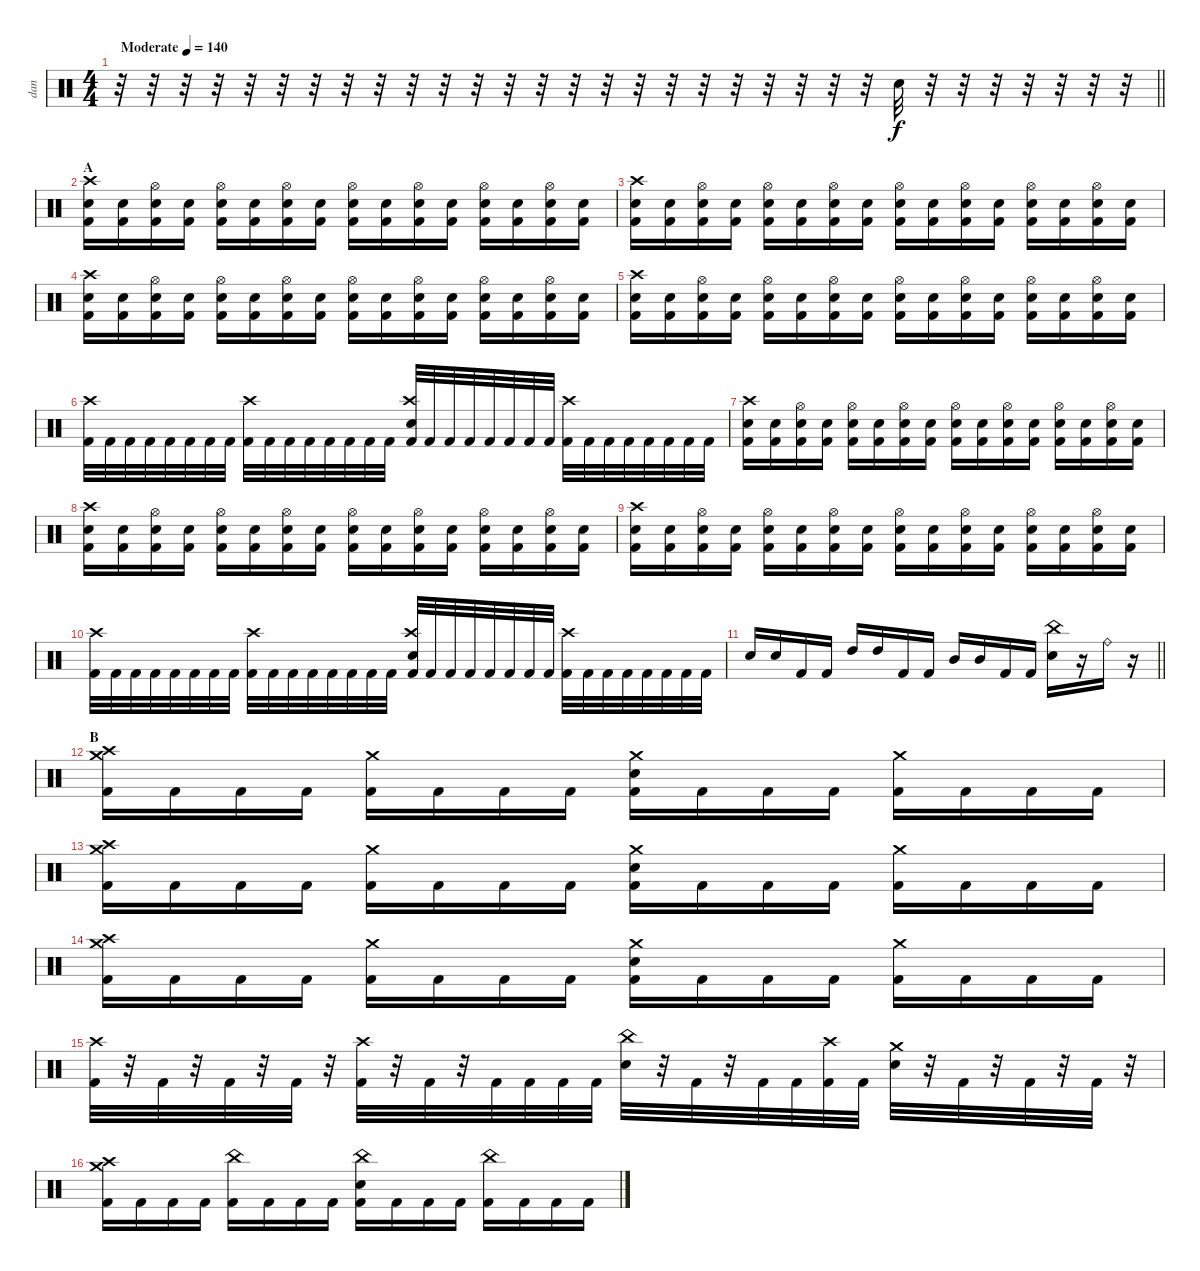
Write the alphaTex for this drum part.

\track ("dan" "dan") {instrument percussion}
\staff {score}
\articulation defaults
\ts (4 4)
\tempo (140 "Moderate")
\clef neutral
\barLineRight lightlight
\ks c
r.32{dy f} r.32 r.32 r.32 r.32 r.32 r.32 r.32 r.32 r.32 r.32 r.32 r.32 r.32 r.32 r.32 r.32 r.32 r.32 r.32 r.32 r.32 r.32 r.32 "Electric Snare (hit)".32 r.32 r.32 r.32 r.32 r.32 r.32 r.32 |
\section ("" "A")
("Crash high (hit)" "Electric Snare (hit)" "Kick (hit) 2").16 ("Electric Snare (hit)" "Kick (hit) 2").16 ("Hi-Hat (open)" "Electric Snare (hit)" "Kick (hit) 2").16 ("Electric Snare (hit)" "Kick (hit) 2").16 ("Hi-Hat (open)" "Electric Snare (hit)" "Kick (hit) 2").16 ("Electric Snare (hit)" "Kick (hit) 2").16 ("Hi-Hat (open)" "Electric Snare (hit)" "Kick (hit) 2").16 ("Electric Snare (hit)" "Kick (hit) 2").16 ("Hi-Hat (open)" "Electric Snare (hit)" "Kick (hit) 2").16 ("Electric Snare (hit)" "Kick (hit) 2").16 ("Hi-Hat (open)" "Electric Snare (hit)" "Kick (hit) 2").16 ("Electric Snare (hit)" "Kick (hit) 2").16 ("Hi-Hat (open)" "Electric Snare (hit)" "Kick (hit) 2").16 ("Electric Snare (hit)" "Kick (hit) 2").16 ("Hi-Hat (open)" "Electric Snare (hit)" "Kick (hit) 2").16 ("Electric Snare (hit)" "Kick (hit) 2").16 |
("Crash high (hit)" "Electric Snare (hit)" "Kick (hit) 2").16 ("Electric Snare (hit)" "Kick (hit) 2").16 ("Hi-Hat (open)" "Electric Snare (hit)" "Kick (hit) 2").16 ("Electric Snare (hit)" "Kick (hit) 2").16 ("Hi-Hat (open)" "Electric Snare (hit)" "Kick (hit) 2").16 ("Electric Snare (hit)" "Kick (hit) 2").16 ("Hi-Hat (open)" "Electric Snare (hit)" "Kick (hit) 2").16 ("Electric Snare (hit)" "Kick (hit) 2").16 ("Hi-Hat (open)" "Electric Snare (hit)" "Kick (hit) 2").16 ("Electric Snare (hit)" "Kick (hit) 2").16 ("Hi-Hat (open)" "Electric Snare (hit)" "Kick (hit) 2").16 ("Electric Snare (hit)" "Kick (hit) 2").16 ("Hi-Hat (open)" "Electric Snare (hit)" "Kick (hit) 2").16 ("Electric Snare (hit)" "Kick (hit) 2").16 ("Hi-Hat (open)" "Electric Snare (hit)" "Kick (hit) 2").16 ("Electric Snare (hit)" "Kick (hit) 2").16 |
("Crash high (hit)" "Electric Snare (hit)" "Kick (hit) 2").16 ("Electric Snare (hit)" "Kick (hit) 2").16 ("Hi-Hat (open)" "Electric Snare (hit)" "Kick (hit) 2").16 ("Electric Snare (hit)" "Kick (hit) 2").16 ("Hi-Hat (open)" "Electric Snare (hit)" "Kick (hit) 2").16 ("Electric Snare (hit)" "Kick (hit) 2").16 ("Hi-Hat (open)" "Electric Snare (hit)" "Kick (hit) 2").16 ("Electric Snare (hit)" "Kick (hit) 2").16 ("Hi-Hat (open)" "Electric Snare (hit)" "Kick (hit) 2").16 ("Electric Snare (hit)" "Kick (hit) 2").16 ("Hi-Hat (open)" "Electric Snare (hit)" "Kick (hit) 2").16 ("Electric Snare (hit)" "Kick (hit) 2").16 ("Hi-Hat (open)" "Electric Snare (hit)" "Kick (hit) 2").16 ("Electric Snare (hit)" "Kick (hit) 2").16 ("Hi-Hat (open)" "Electric Snare (hit)" "Kick (hit) 2").16 ("Electric Snare (hit)" "Kick (hit) 2").16 |
("Crash high (hit)" "Electric Snare (hit)" "Kick (hit) 2").16 ("Electric Snare (hit)" "Kick (hit) 2").16 ("Hi-Hat (open)" "Electric Snare (hit)" "Kick (hit) 2").16 ("Electric Snare (hit)" "Kick (hit) 2").16 ("Hi-Hat (open)" "Electric Snare (hit)" "Kick (hit) 2").16 ("Electric Snare (hit)" "Kick (hit) 2").16 ("Hi-Hat (open)" "Electric Snare (hit)" "Kick (hit) 2").16 ("Electric Snare (hit)" "Kick (hit) 2").16 ("Hi-Hat (open)" "Electric Snare (hit)" "Kick (hit) 2").16 ("Electric Snare (hit)" "Kick (hit) 2").16 ("Hi-Hat (open)" "Electric Snare (hit)" "Kick (hit) 2").16 ("Electric Snare (hit)" "Kick (hit) 2").16 ("Hi-Hat (open)" "Electric Snare (hit)" "Kick (hit) 2").16 ("Electric Snare (hit)" "Kick (hit) 2").16 ("Hi-Hat (open)" "Electric Snare (hit)" "Kick (hit) 2").16 ("Electric Snare (hit)" "Kick (hit) 2").16 |
("Crash high (hit)" "Kick (hit) 2").32 "Kick (hit) 2".32 "Kick (hit) 2".32 "Kick (hit) 2".32 "Kick (hit) 2".32 "Kick (hit) 2".32 "Kick (hit) 2".32 "Kick (hit) 2".32 ("Crash high (hit)" "Kick (hit) 2").32 "Kick (hit) 2".32 "Kick (hit) 2".32 "Kick (hit) 2".32 "Kick (hit) 2".32 "Kick (hit) 2".32 "Kick (hit) 2".32 "Kick (hit) 2".32 ("Crash high (hit)" "Electric Snare (hit)" "Kick (hit) 2").32 "Kick (hit) 2".32 "Kick (hit) 2".32 "Kick (hit) 2".32 "Kick (hit) 2".32 "Kick (hit) 2".32 "Kick (hit) 2".32 "Kick (hit) 2".32 ("Crash high (hit)" "Kick (hit) 2").32 "Kick (hit) 2".32 "Kick (hit) 2".32 "Kick (hit) 2".32 "Kick (hit) 2".32 "Kick (hit) 2".32 "Kick (hit) 2".32 "Kick (hit) 2".32 |
("Crash high (hit)" "Electric Snare (hit)" "Kick (hit) 2").16 ("Electric Snare (hit)" "Kick (hit) 2").16 ("Hi-Hat (open)" "Electric Snare (hit)" "Kick (hit) 2").16 ("Electric Snare (hit)" "Kick (hit) 2").16 ("Hi-Hat (open)" "Electric Snare (hit)" "Kick (hit) 2").16 ("Electric Snare (hit)" "Kick (hit) 2").16 ("Hi-Hat (open)" "Electric Snare (hit)" "Kick (hit) 2").16 ("Electric Snare (hit)" "Kick (hit) 2").16 ("Hi-Hat (open)" "Electric Snare (hit)" "Kick (hit) 2").16 ("Electric Snare (hit)" "Kick (hit) 2").16 ("Hi-Hat (open)" "Electric Snare (hit)" "Kick (hit) 2").16 ("Electric Snare (hit)" "Kick (hit) 2").16 ("Hi-Hat (open)" "Electric Snare (hit)" "Kick (hit) 2").16 ("Electric Snare (hit)" "Kick (hit) 2").16 ("Hi-Hat (open)" "Electric Snare (hit)" "Kick (hit) 2").16 ("Electric Snare (hit)" "Kick (hit) 2").16 |
("Crash high (hit)" "Electric Snare (hit)" "Kick (hit) 2").16 ("Electric Snare (hit)" "Kick (hit) 2").16 ("Hi-Hat (open)" "Electric Snare (hit)" "Kick (hit) 2").16 ("Electric Snare (hit)" "Kick (hit) 2").16 ("Hi-Hat (open)" "Electric Snare (hit)" "Kick (hit) 2").16 ("Electric Snare (hit)" "Kick (hit) 2").16 ("Hi-Hat (open)" "Electric Snare (hit)" "Kick (hit) 2").16 ("Electric Snare (hit)" "Kick (hit) 2").16 ("Hi-Hat (open)" "Electric Snare (hit)" "Kick (hit) 2").16 ("Electric Snare (hit)" "Kick (hit) 2").16 ("Hi-Hat (open)" "Electric Snare (hit)" "Kick (hit) 2").16 ("Electric Snare (hit)" "Kick (hit) 2").16 ("Hi-Hat (open)" "Electric Snare (hit)" "Kick (hit) 2").16 ("Electric Snare (hit)" "Kick (hit) 2").16 ("Hi-Hat (open)" "Electric Snare (hit)" "Kick (hit) 2").16 ("Electric Snare (hit)" "Kick (hit) 2").16 |
("Crash high (hit)" "Electric Snare (hit)" "Kick (hit) 2").16 ("Electric Snare (hit)" "Kick (hit) 2").16 ("Hi-Hat (open)" "Electric Snare (hit)" "Kick (hit) 2").16 ("Electric Snare (hit)" "Kick (hit) 2").16 ("Hi-Hat (open)" "Electric Snare (hit)" "Kick (hit) 2").16 ("Electric Snare (hit)" "Kick (hit) 2").16 ("Hi-Hat (open)" "Electric Snare (hit)" "Kick (hit) 2").16 ("Electric Snare (hit)" "Kick (hit) 2").16 ("Hi-Hat (open)" "Electric Snare (hit)" "Kick (hit) 2").16 ("Electric Snare (hit)" "Kick (hit) 2").16 ("Hi-Hat (open)" "Electric Snare (hit)" "Kick (hit) 2").16 ("Electric Snare (hit)" "Kick (hit) 2").16 ("Hi-Hat (open)" "Electric Snare (hit)" "Kick (hit) 2").16 ("Electric Snare (hit)" "Kick (hit) 2").16 ("Hi-Hat (open)" "Electric Snare (hit)" "Kick (hit) 2").16 ("Electric Snare (hit)" "Kick (hit) 2").16 |
("Crash high (hit)" "Kick (hit) 2").32 "Kick (hit) 2".32 "Kick (hit) 2".32 "Kick (hit) 2".32 "Kick (hit) 2".32 "Kick (hit) 2".32 "Kick (hit) 2".32 "Kick (hit) 2".32 ("Crash high (hit)" "Kick (hit) 2").32 "Kick (hit) 2".32 "Kick (hit) 2".32 "Kick (hit) 2".32 "Kick (hit) 2".32 "Kick (hit) 2".32 "Kick (hit) 2".32 "Kick (hit) 2".32 ("Crash high (hit)" "Electric Snare (hit)" "Kick (hit) 2").32 "Kick (hit) 2".32 "Kick (hit) 2".32 "Kick (hit) 2".32 "Kick (hit) 2".32 "Kick (hit) 2".32 "Kick (hit) 2".32 "Kick (hit) 2".32 ("Crash high (hit)" "Kick (hit) 2").32 "Kick (hit) 2".32 "Kick (hit) 2".32 "Kick (hit) 2".32 "Kick (hit) 2".32 "Kick (hit) 2".32 "Kick (hit) 2".32 "Kick (hit) 2".32 |
\barLineRight lightlight "Electric Snare (hit)".16 "Electric Snare (hit)".16 "Kick (hit) 2".16 "Kick (hit) 2".16 "High Tom (hit)".16 "High Tom (hit)".16 "Kick (hit) 2".16 "Kick (hit) 2".16 "Mid Tom (hit)".16 "Mid Tom (hit)".16 "Kick (hit) 2".16 "Kick (hit) 2".16
("China (hit)" "Electric Snare (hit)").16 r.16 "Ride (bell)".16 r.16 |
\section ("" "B")
("Crash high (hit)" "Crash medium (hit)" "Kick (hit) 2").16 "Kick (hit) 2".16 "Kick (hit) 2".16 "Kick (hit) 2".16 ("Crash medium (hit)" "Kick (hit) 2").16 "Kick (hit) 2".16 "Kick (hit) 2".16 "Kick (hit) 2".16 ("Crash medium (hit)" "Electric Snare (hit)" "Kick (hit) 2").16 "Kick (hit) 2".16 "Kick (hit) 2".16 "Kick (hit) 2".16 ("Crash medium (hit)" "Kick (hit) 2").16 "Kick (hit) 2".16 "Kick (hit) 2".16 "Kick (hit) 2".16 |
("Crash high (hit)" "Crash medium (hit)" "Kick (hit) 2").16 "Kick (hit) 2".16 "Kick (hit) 2".16 "Kick (hit) 2".16 ("Crash medium (hit)" "Kick (hit) 2").16 "Kick (hit) 2".16 "Kick (hit) 2".16 "Kick (hit) 2".16 ("Crash medium (hit)" "Electric Snare (hit)" "Kick (hit) 2").16 "Kick (hit) 2".16 "Kick (hit) 2".16 "Kick (hit) 2".16 ("Crash medium (hit)" "Kick (hit) 2").16 "Kick (hit) 2".16 "Kick (hit) 2".16 "Kick (hit) 2".16 |
("Crash high (hit)" "Crash medium (hit)" "Kick (hit) 2").16 "Kick (hit) 2".16 "Kick (hit) 2".16 "Kick (hit) 2".16 ("Crash medium (hit)" "Kick (hit) 2").16 "Kick (hit) 2".16 "Kick (hit) 2".16 "Kick (hit) 2".16 ("Crash medium (hit)" "Electric Snare (hit)" "Kick (hit) 2").16 "Kick (hit) 2".16 "Kick (hit) 2".16 "Kick (hit) 2".16 ("Crash medium (hit)" "Kick (hit) 2").16 "Kick (hit) 2".16 "Kick (hit) 2".16 "Kick (hit) 2".16 |
("Crash high (hit)" "Kick (hit) 2").32 r.32 "Kick (hit) 2".32 r.32 "Kick (hit) 2".32 r.32 "Kick (hit) 2".32 r.32 ("Crash high (hit)" "Kick (hit) 2").32 r.32 "Kick (hit) 2".32 r.32 "Kick (hit) 2".32 "Kick (hit) 2".32 "Kick (hit) 2".32 "Kick (hit) 2".32 ("China (hit)" "Electric Snare (hit)").32 r.32 "Kick (hit) 2".32 r.32 "Kick (hit) 2".32 "Kick (hit) 2".32 ("Crash high (hit)" "Kick (hit) 2").32 "Kick (hit) 2".32 ("Crash medium (hit)" "Electric Snare (hit)").32 r.32 "Kick (hit) 2".32 r.32 "Kick (hit) 2".32 r.32 "Kick (hit) 2".32 r.32 |
("Crash high (hit)" "Crash medium (hit)" "Kick (hit) 2").16 "Kick (hit) 2".16 "Kick (hit) 2".16 "Kick (hit) 2".16 ("China (hit)" "Kick (hit) 2").16 "Kick (hit) 2".16 "Kick (hit) 2".16 "Kick (hit) 2".16 ("China (hit)" "Electric Snare (hit)" "Kick (hit) 2").16 "Kick (hit) 2".16 "Kick (hit) 2".16 "Kick (hit) 2".16 ("China (hit)" "Kick (hit) 2").16 "Kick (hit) 2".16 "Kick (hit) 2".16 "Kick (hit) 2".16
